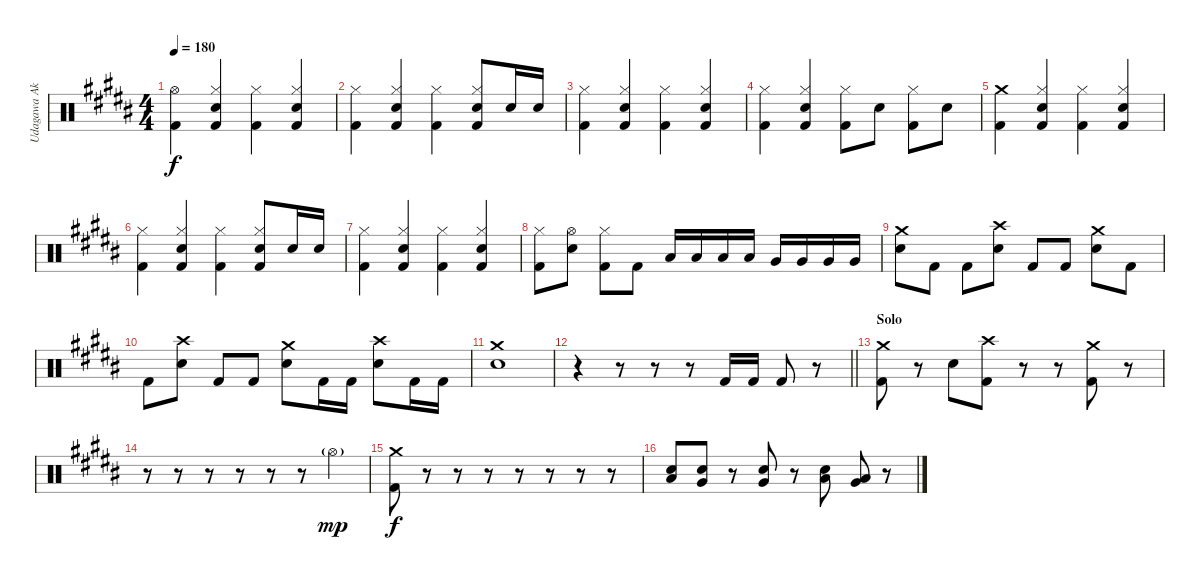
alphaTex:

\track ("Udagawa Ako" "Udagawa Ak") {instrument percussion}
\staff {score}
\articulation defaults
\ts (4 4)
\tempo 180
\clef neutral
\ks b
("Hi-Hat (open)" "Kick (hit) 2").4{dy f} ("Hi-Hat (closed)" "Electric Snare (hit)" "Kick (hit) 2").4 ("Hi-Hat (closed)" "Kick (hit) 2").4 ("Hi-Hat (closed)" "Electric Snare (hit)" "Kick (hit) 2").4 |
("Hi-Hat (closed)" "Kick (hit) 2").4 ("Hi-Hat (closed)" "Electric Snare (hit)" "Kick (hit) 2").4 ("Hi-Hat (closed)" "Kick (hit) 2").4 ("Hi-Hat (closed)" "Electric Snare (hit)" "Kick (hit) 2").8 "Electric Snare (hit)".16 "Electric Snare (hit)".16 |
("Hi-Hat (closed)" "Kick (hit) 2").4 ("Hi-Hat (closed)" "Electric Snare (hit)" "Kick (hit) 2").4 ("Hi-Hat (closed)" "Kick (hit) 2").4 ("Hi-Hat (closed)" "Electric Snare (hit)" "Kick (hit) 2").4 |
("Hi-Hat (closed)" "Kick (hit) 2").4 ("Hi-Hat (closed)" "Electric Snare (hit)" "Kick (hit) 2").4 ("Hi-Hat (closed)" "Kick (hit) 2").8 "Electric Snare (hit)".8 ("Hi-Hat (closed)" "Kick (hit) 2").8 "Electric Snare (hit)".8 |
("Crash medium (hit)" "Kick (hit) 2").4 ("Hi-Hat (closed)" "Electric Snare (hit)" "Kick (hit) 2").4 ("Hi-Hat (closed)" "Kick (hit) 2").4 ("Hi-Hat (closed)" "Electric Snare (hit)" "Kick (hit) 2").4 |
("Hi-Hat (closed)" "Kick (hit) 2").4 ("Hi-Hat (closed)" "Electric Snare (hit)" "Kick (hit) 2").4 ("Hi-Hat (closed)" "Kick (hit) 2").4 ("Hi-Hat (closed)" "Electric Snare (hit)" "Kick (hit) 2").8 "Electric Snare (hit)".16 "Electric Snare (hit)".16 |
("Hi-Hat (closed)" "Kick (hit) 2").4 ("Hi-Hat (closed)" "Electric Snare (hit)" "Kick (hit) 2").4 ("Hi-Hat (closed)" "Kick (hit) 2").4 ("Hi-Hat (closed)" "Electric Snare (hit)" "Kick (hit) 2").4 |
("Hi-Hat (closed)" "Kick (hit) 2").8 ("Hi-Hat (open)" "Electric Snare (hit)").8 ("Hi-Hat (closed)" "Kick (hit) 2").8 "Kick (hit) 2".8 "Low Tom (hit)".16 "Low Tom (hit)".16 "Low Tom (hit)".16 "Low Tom (hit)".16 "Very Low Tom (hit)".16 "Very Low Tom (hit)".16 "Very Low Tom (hit)".16 "Very Low Tom (hit)".16 |
("Crash medium (hit)" "Electric Snare (hit)").8 "Kick (hit) 2".8 "Kick (hit) 2".8 ("Crash high (hit)" "Electric Snare (hit)").8 "Kick (hit) 2".8 "Kick (hit) 2".8 ("Crash medium (hit)" "Electric Snare (hit)").8 "Kick (hit) 2".8 |
"Kick (hit) 2".8 ("Crash high (hit)" "Electric Snare (hit)").8 "Kick (hit) 2".8 "Kick (hit) 2".8 ("Crash medium (hit)" "Electric Snare (hit)").8 "Kick (hit) 2".16 "Kick (hit) 2".16 ("Crash high (hit)" "Electric Snare (hit)").8 "Kick (hit) 2".16 "Kick (hit) 2".16 |
("Crash medium (hit)" "Electric Snare (hit)").1 |
\barLineRight lightlight
r.4 r.8 r.8 r.8 "Kick (hit) 2".16 "Kick (hit) 2".16 "Kick (hit) 2".8 r.8 |
\section ("" "Solo")
("Crash medium (hit)" "Kick (hit) 2").8 r.8 "Electric Snare (hit)".8 ("Crash high (hit)" "Kick (hit) 2").8 r.8 r.8 ("Crash medium (hit)" "Kick (hit) 2").8 r.8 |
r.8 r.8 r.8 r.8 r.8 r.8 "Hi-Hat (open)"{g}.4{dy mp} |
("Crash medium (hit)" "Kick (hit) 2").8{dy f} r.8 r.8 r.8 r.8 r.8 r.8 r.8 |
("Low Tom (hit)" "Electric Snare (hit)").8{bd 60} ("Very Low Tom (hit)" "Electric Snare (hit)").8{bd 60} r.8 ("Very Low Tom (hit)" "Electric Snare (hit)").8{bd 60} r.8 ("Low Floor Tom (hit)" "Electric Snare (hit)").8 ("Very Low Tom (hit)" "Low Floor Tom (hit)").8 r.8
